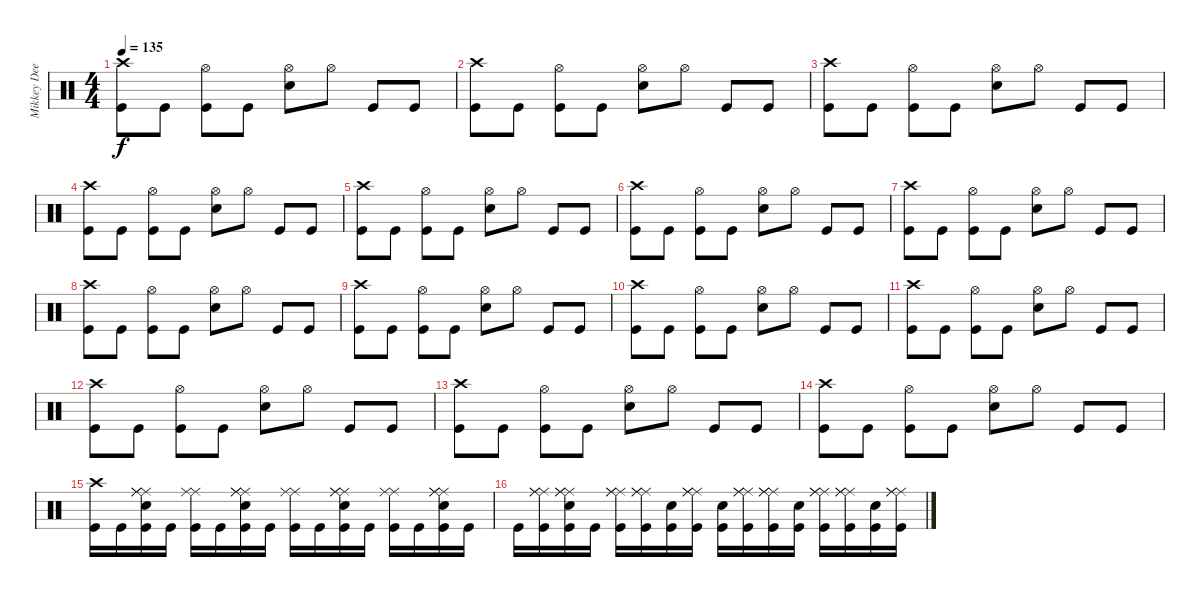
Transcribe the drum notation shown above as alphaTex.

\track ("Mikkey Dee - Drums" "Mikkey Dee") {instrument percussion}
\staff {score}
\articulation defaults
\ts (4 4)
\tempo 135
\clef neutral
\ks c
("Crash high (hit)" "Kick (hit)").8{dy f} "Kick (hit)".8 ("Hi-Hat (open)" "Kick (hit)").8 "Kick (hit)".8 ("Hi-Hat (open)" "Snare (hit) 2").8 "Hi-Hat (open)".8 "Kick (hit)".8 "Kick (hit)".8 |
("Crash high (hit)" "Kick (hit)").8 "Kick (hit)".8 ("Hi-Hat (open)" "Kick (hit)").8 "Kick (hit)".8 ("Hi-Hat (open)" "Snare (hit) 2").8 "Hi-Hat (open)".8 "Kick (hit)".8 "Kick (hit)".8 |
("Crash high (hit)" "Kick (hit)").8 "Kick (hit)".8 ("Hi-Hat (open)" "Kick (hit)").8 "Kick (hit)".8 ("Hi-Hat (open)" "Snare (hit) 2").8 "Hi-Hat (open)".8 "Kick (hit)".8 "Kick (hit)".8 |
("Crash high (hit)" "Kick (hit)").8 "Kick (hit)".8 ("Hi-Hat (open)" "Kick (hit)").8 "Kick (hit)".8 ("Hi-Hat (open)" "Snare (hit) 2").8 "Hi-Hat (open)".8 "Kick (hit)".8 "Kick (hit)".8 |
("Crash high (hit)" "Kick (hit)").8 "Kick (hit)".8 ("Hi-Hat (open)" "Kick (hit)").8 "Kick (hit)".8 ("Hi-Hat (open)" "Snare (hit) 2").8 "Hi-Hat (open)".8 "Kick (hit)".8 "Kick (hit)".8 |
("Crash high (hit)" "Kick (hit)").8 "Kick (hit)".8 ("Hi-Hat (open)" "Kick (hit)").8 "Kick (hit)".8 ("Hi-Hat (open)" "Snare (hit) 2").8 "Hi-Hat (open)".8 "Kick (hit)".8 "Kick (hit)".8 |
("Crash high (hit)" "Kick (hit)").8 "Kick (hit)".8 ("Hi-Hat (open)" "Kick (hit)").8 "Kick (hit)".8 ("Hi-Hat (open)" "Snare (hit) 2").8 "Hi-Hat (open)".8 "Kick (hit)".8 "Kick (hit)".8 |
("Crash high (hit)" "Kick (hit)").8 "Kick (hit)".8 ("Hi-Hat (open)" "Kick (hit)").8 "Kick (hit)".8 ("Hi-Hat (open)" "Snare (hit) 2").8 "Hi-Hat (open)".8 "Kick (hit)".8 "Kick (hit)".8 |
("Crash high (hit)" "Kick (hit)").8 "Kick (hit)".8 ("Hi-Hat (open)" "Kick (hit)").8 "Kick (hit)".8 ("Hi-Hat (open)" "Snare (hit) 2").8 "Hi-Hat (open)".8 "Kick (hit)".8 "Kick (hit)".8 |
("Crash high (hit)" "Kick (hit)").8 "Kick (hit)".8 ("Hi-Hat (open)" "Kick (hit)").8 "Kick (hit)".8 ("Hi-Hat (open)" "Snare (hit) 2").8 "Hi-Hat (open)".8 "Kick (hit)".8 "Kick (hit)".8 |
("Crash high (hit)" "Kick (hit)").8 "Kick (hit)".8 ("Hi-Hat (open)" "Kick (hit)").8 "Kick (hit)".8 ("Hi-Hat (open)" "Snare (hit) 2").8 "Hi-Hat (open)".8 "Kick (hit)".8 "Kick (hit)".8 |
("Crash high (hit)" "Kick (hit)").8 "Kick (hit)".8 ("Hi-Hat (open)" "Kick (hit)").8 "Kick (hit)".8 ("Hi-Hat (open)" "Snare (hit) 2").8 "Hi-Hat (open)".8 "Kick (hit)".8 "Kick (hit)".8 |
("Crash high (hit)" "Kick (hit)").8 "Kick (hit)".8 ("Hi-Hat (open)" "Kick (hit)").8 "Kick (hit)".8 ("Hi-Hat (open)" "Snare (hit) 2").8 "Hi-Hat (open)".8 "Kick (hit)".8 "Kick (hit)".8 |
("Crash high (hit)" "Kick (hit)").8 "Kick (hit)".8 ("Hi-Hat (open)" "Kick (hit)").8 "Kick (hit)".8 ("Hi-Hat (open)" "Snare (hit) 2").8 "Hi-Hat (open)".8 "Kick (hit)".8 "Kick (hit)".8 |
("Crash high (hit)" "Kick (hit)").16 "Kick (hit)".16 ("Ride (middle)" "Ride (middle)" "Ride (middle)" "Snare (hit) 2" "Kick (hit)").16 "Kick (hit)".16 ("Ride (middle)" "Ride (middle)" "Kick (hit)").16 "Kick (hit)".16 ("Ride (middle)" "Ride (middle)" "Ride (middle)" "Snare (hit) 2" "Kick (hit)").16 "Kick (hit)".16 ("Ride (middle)" "Ride (middle)" "Kick (hit)").16 "Kick (hit)".16 ("Ride (middle)" "Ride (middle)" "Ride (middle)" "Snare (hit) 2" "Kick (hit)").16 "Kick (hit)".16 ("Ride (middle)" "Ride (middle)" "Kick (hit)").16 "Kick (hit)".16 ("Ride (middle)" "Ride (middle)" "Ride (middle)" "Snare (hit) 2" "Kick (hit)").16 "Kick (hit)".16 |
"Kick (hit)".16 ("Ride (middle)" "Ride (middle)" "Ride (middle)" "Kick (hit)").16 ("Ride (middle)" "Ride (middle)" "Ride (middle)" "Snare (hit) 2" "Kick (hit)").16 "Kick (hit)".16 ("Ride (middle)" "Ride (middle)" "Ride (middle)" "Kick (hit)").16 ("Ride (middle)" "Ride (middle)" "Ride (middle)" "Kick (hit)").16 ("Snare (hit) 2" "Kick (hit)").16 ("Ride (middle)" "Ride (middle)" "Ride (middle)" "Kick (hit)").16 ("Snare (hit) 2" "Kick (hit)").16 ("Ride (middle)" "Ride (middle)" "Ride (middle)" "Kick (hit)").16 ("Ride (middle)" "Ride (middle)" "Ride (middle)" "Kick (hit)").16 ("Snare (hit) 2" "Kick (hit)").16 ("Ride (middle)" "Ride (middle)" "Ride (middle)" "Kick (hit)").16 ("Ride (middle)" "Ride (middle)" "Ride (middle)" "Kick (hit)").16 ("Snare (hit) 2" "Kick (hit)").16 ("Ride (middle)" "Ride (middle)" "Ride (middle)" "Kick (hit)").16
